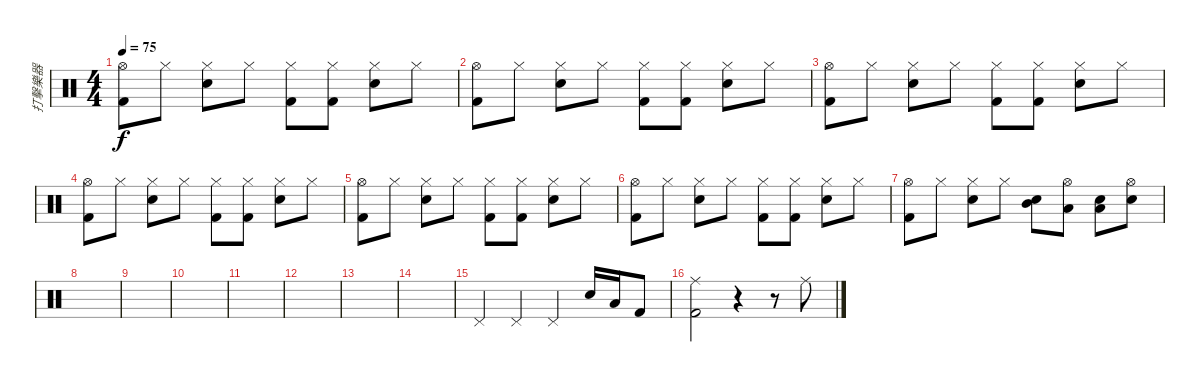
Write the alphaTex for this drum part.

\track ("打擊樂器" "打擊樂器") {instrument percussion}
\staff {score}
\articulation defaults
\ts (4 4)
\tempo 75
\clef neutral
\ks c
("Hi-Hat (open)" "Kick (hit) 2").8{dy f} "Hi-Hat (closed)".8 ("Hi-Hat (closed)" "Electric Snare (hit)").8 "Hi-Hat (closed)".8 ("Hi-Hat (closed)" "Kick (hit) 2").8 ("Hi-Hat (closed)" "Kick (hit) 2").8 ("Hi-Hat (closed)" "Electric Snare (hit)").8 "Hi-Hat (closed)".8 |
("Hi-Hat (open)" "Kick (hit) 2").8 "Hi-Hat (closed)".8 ("Hi-Hat (closed)" "Electric Snare (hit)").8 "Hi-Hat (closed)".8 ("Hi-Hat (closed)" "Kick (hit) 2").8 ("Hi-Hat (closed)" "Kick (hit) 2").8 ("Hi-Hat (closed)" "Electric Snare (hit)").8 "Hi-Hat (closed)".8 |
("Hi-Hat (open)" "Kick (hit) 2").8 "Hi-Hat (closed)".8 ("Hi-Hat (closed)" "Electric Snare (hit)").8 "Hi-Hat (closed)".8 ("Hi-Hat (closed)" "Kick (hit) 2").8 ("Hi-Hat (closed)" "Kick (hit) 2").8 ("Hi-Hat (closed)" "Electric Snare (hit)").8 "Hi-Hat (closed)".8 |
("Hi-Hat (open)" "Kick (hit) 2").8 "Hi-Hat (closed)".8 ("Hi-Hat (closed)" "Electric Snare (hit)").8 "Hi-Hat (closed)".8 ("Hi-Hat (closed)" "Kick (hit) 2").8 ("Hi-Hat (closed)" "Kick (hit) 2").8 ("Hi-Hat (closed)" "Electric Snare (hit)").8 "Hi-Hat (closed)".8 |
("Hi-Hat (open)" "Kick (hit) 2").8 "Hi-Hat (closed)".8 ("Hi-Hat (closed)" "Electric Snare (hit)").8 "Hi-Hat (closed)".8 ("Hi-Hat (closed)" "Kick (hit) 2").8 ("Hi-Hat (closed)" "Kick (hit) 2").8 ("Hi-Hat (closed)" "Electric Snare (hit)").8 "Hi-Hat (closed)".8 |
("Hi-Hat (open)" "Kick (hit) 2").8 "Hi-Hat (closed)".8 ("Hi-Hat (closed)" "Electric Snare (hit)").8 "Hi-Hat (closed)".8 ("Hi-Hat (closed)" "Kick (hit) 2").8 ("Hi-Hat (closed)" "Kick (hit) 2").8 ("Hi-Hat (closed)" "Electric Snare (hit)").8 "Hi-Hat (closed)".8 |
("Hi-Hat (open)" "Kick (hit) 2").8 "Hi-Hat (closed)".8 ("Hi-Hat (closed)" "Electric Snare (hit)").8 "Hi-Hat (closed)".8 ("Electric Snare (hit)" "Mid Tom (hit)").8 ("Hi-Hat (open)" "Low Tom (hit)").8 ("Electric Snare (hit)" "Low Tom (hit)").8 ("Electric Snare (hit)" "Hi-Hat (open)").8 |
|
|
|
|
|
|
|
"Pedal Hi-Hat (hit)".4 "Pedal Hi-Hat (hit)".4 "Pedal Hi-Hat (hit)".4 "Electric Snare (hit)".16 "Low Floor Tom (hit)".16 "Kick (hit) 2".8 |
("Ride (middle)" "Kick (hit) 2").2 r.4 r.8 "Ride (middle)".8
